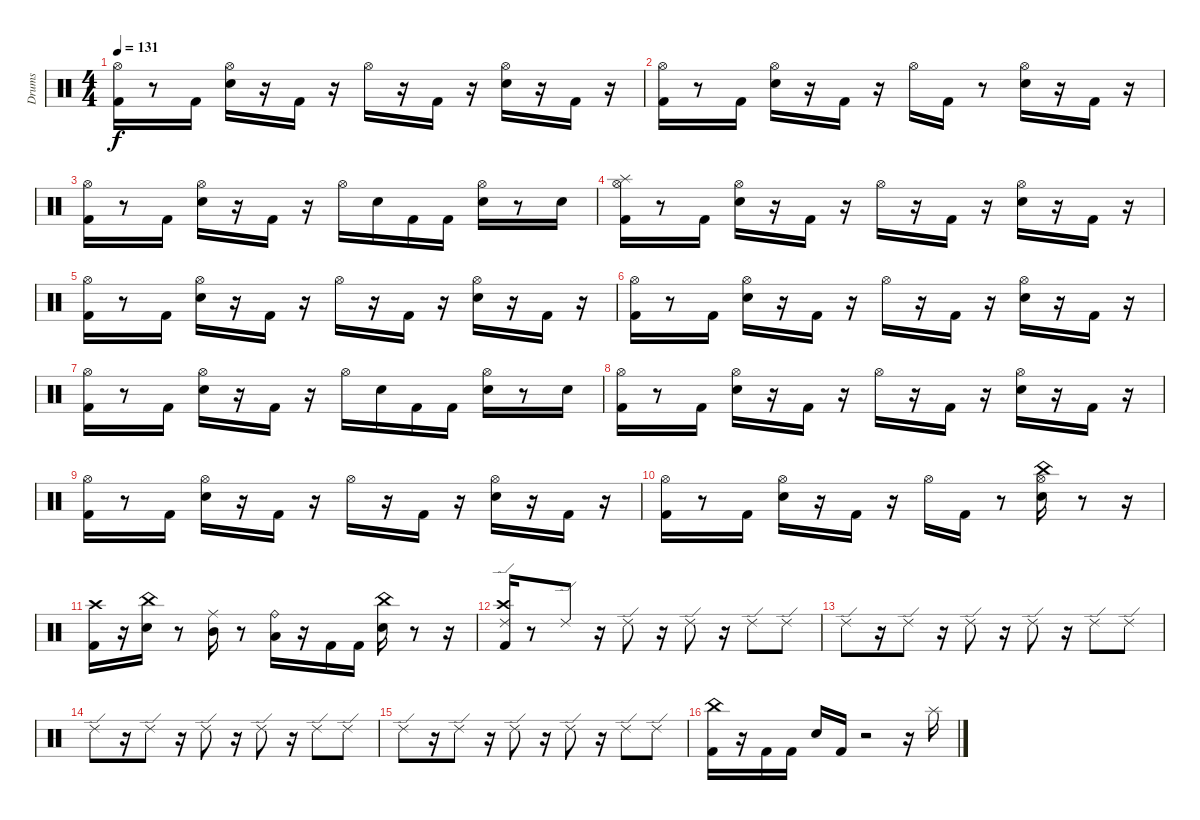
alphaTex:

\track ("Drums" "Drums") {instrument percussion}
\staff {score}
\articulation defaults
\ts (4 4)
\tempo 131
\clef neutral
\ks c
("Hi-Hat (open)" "Kick (hit) 2").16{dy f} r.8 "Kick (hit) 2".16 ("Hi-Hat (open)" "Snare (hit) 2").16 r.16 "Kick (hit) 2".16 r.16 "Hi-Hat (open)".16 r.16 "Kick (hit) 2".16 r.16 ("Hi-Hat (open)" "Snare (hit) 2").16 r.16 "Kick (hit) 2".16 r.16 |
("Hi-Hat (open)" "Kick (hit) 2").16 r.8 "Kick (hit) 2".16 ("Hi-Hat (open)" "Snare (hit) 2").16 r.16 "Kick (hit) 2".16 r.16 "Hi-Hat (open)".16 "Kick (hit) 2".16 r.8 ("Hi-Hat (open)" "Snare (hit) 2").16 r.16 "Kick (hit) 2".16 r.16 |
("Hi-Hat (open)" "Kick (hit) 2").16 r.8 "Kick (hit) 2".16 ("Hi-Hat (open)" "Snare (hit) 2").16 r.16 "Kick (hit) 2".16 r.16 "Hi-Hat (open)".16 "Snare (hit) 2".16 "Kick (hit) 2".16 "Kick (hit) 2".16 ("Hi-Hat (open)" "Snare (hit) 2").16 r.8 "Snare (hit) 2".16 |
("Splash (hit)" "Hi-Hat (open)" "Kick (hit) 2").16 r.8 "Kick (hit) 2".16 ("Hi-Hat (open)" "Snare (hit) 2").16 r.16 "Kick (hit) 2".16 r.16 "Hi-Hat (open)".16 r.16 "Kick (hit) 2".16 r.16 ("Hi-Hat (open)" "Snare (hit) 2").16 r.16 "Kick (hit) 2".16 r.16 |
("Hi-Hat (open)" "Kick (hit) 2").16 r.8 "Kick (hit) 2".16 ("Hi-Hat (open)" "Snare (hit) 2").16 r.16 "Kick (hit) 2".16 r.16 "Hi-Hat (open)".16 r.16 "Kick (hit) 2".16 r.16 ("Hi-Hat (open)" "Snare (hit) 2").16 r.16 "Kick (hit) 2".16 r.16 |
("Hi-Hat (open)" "Kick (hit) 2").16 r.8 "Kick (hit) 2".16 ("Hi-Hat (open)" "Snare (hit) 2").16 r.16 "Kick (hit) 2".16 r.16 "Hi-Hat (open)".16 r.16 "Kick (hit) 2".16 r.16 ("Hi-Hat (open)" "Snare (hit) 2").16 r.16 "Kick (hit) 2".16 r.16 |
("Hi-Hat (open)" "Kick (hit) 2").16 r.8 "Kick (hit) 2".16 ("Hi-Hat (open)" "Snare (hit) 2").16 r.16 "Kick (hit) 2".16 r.16 "Hi-Hat (open)".16 "Snare (hit) 2".16 "Kick (hit) 2".16 "Kick (hit) 2".16 ("Hi-Hat (open)" "Snare (hit) 2").16 r.8 "Snare (hit) 2".16 |
("Hi-Hat (open)" "Kick (hit) 2").16 r.8 "Kick (hit) 2".16 ("Hi-Hat (open)" "Snare (hit) 2").16 r.16 "Kick (hit) 2".16 r.16 "Hi-Hat (open)".16 r.16 "Kick (hit) 2".16 r.16 ("Hi-Hat (open)" "Snare (hit) 2").16 r.16 "Kick (hit) 2".16 r.16 |
("Hi-Hat (open)" "Kick (hit) 2").16 r.8 "Kick (hit) 2".16 ("Hi-Hat (open)" "Snare (hit) 2").16 r.16 "Kick (hit) 2".16 r.16 "Hi-Hat (open)".16 r.16 "Kick (hit) 2".16 r.16 ("Hi-Hat (open)" "Snare (hit) 2").16 r.16 "Kick (hit) 2".16 r.16 |
("Hi-Hat (open)" "Kick (hit) 2").16 r.8 "Kick (hit) 2".16 ("Hi-Hat (open)" "Snare (hit) 2").16 r.16 "Kick (hit) 2".16 r.16 "Hi-Hat (open)".16 "Kick (hit) 2".16 r.8 ("Hi-Hat (open)" "China (hit)" "Snare (hit) 2").16 r.8 r.16 |
("Crash high (hit)" "Kick (hit) 2").16 r.16 ("China (hit)" "Snare (hit) 2").16 r.8 ("Mid Tom (hit)" "Ride (middle)").16 r.8 ("Low Tom (hit)" "Ride (bell)").16 r.16 "Kick (hit) 2".16 "Kick (hit) 2".16 ("China (hit)" "Snare (hit) 2").16 r.8 r.16 |
("Ride (edge) 2" "Crash high (hit)" "Kick (hit) 2").16 r.8 "Ride (edge) 2".8 r.16 "Ride (edge) 2".8 r.16 "Ride (edge) 2".8 r.16 "Ride (edge) 2".8 "Ride (edge) 2".8 |
"Ride (edge) 2".8 r.16 "Ride (edge) 2".8 r.16 "Ride (edge) 2".8 r.16 "Ride (edge) 2".8 r.16 "Ride (edge) 2".8 "Ride (edge) 2".8 |
"Ride (edge) 2".8 r.16 "Ride (edge) 2".8 r.16 "Ride (edge) 2".8 r.16 "Ride (edge) 2".8 r.16 "Ride (edge) 2".8 "Ride (edge) 2".8 |
"Ride (edge) 2".8 r.16 "Ride (edge) 2".8 r.16 "Ride (edge) 2".8 r.16 "Ride (edge) 2".8 r.16 "Ride (edge) 2".8 "Ride (edge) 2".8 |
("China (hit)" "Kick (hit) 2").16 r.16 "Kick (hit) 2".16 "Kick (hit) 2".16 "Snare (hit) 2".16 "Kick (hit) 2".16 r.2 r.16 "Splash (hit)".16
